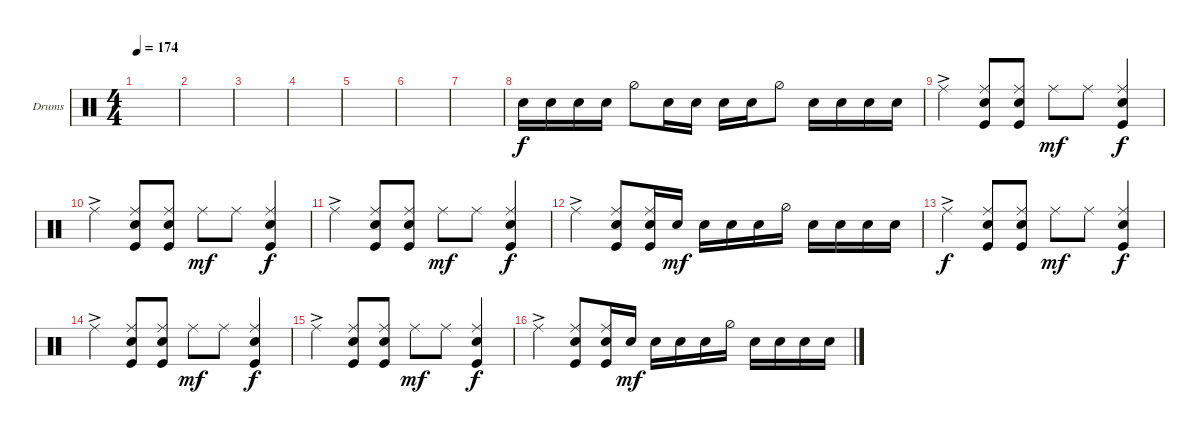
\defaultSystemsLayout 4
\bracketExtendMode groupsimilarinstruments
\firstSystemTrackNameOrientation horizontal
\otherSystemsTrackNameOrientation horizontal
\track ("Drumkit (Liam Finn)" "Drums") {instrument percussion}
\staff {score}
\articulation defaults
\ts (4 4)
\tempo 174
\clef neutral
\scale
0.333333
\ks c
|
\scale
0.333333 |
\scale
0.333333 |
\scale
0.333333 |
\scale
0.333333 |
\scale
0.333333 |
\scale
0.333333 |
\scale
0.333333 "Snare (hit) 2".16 "Snare (hit) 2".16 "Snare (hit) 2".16 "Snare (hit) 2".16 "Hi-Hat (half)".8 "Snare (hit) 2".16 "Snare (hit) 2".16 "Snare (hit) 2".16 "Snare (hit) 2".16 "Hi-Hat (half)".8 "Snare (hit) 2".16 "Snare (hit) 2".16 "Snare (hit) 2".16 "Snare (hit) 2".16 |
\scale
0.333333 "Ride (middle)"{ac}.4{dy f} ("Snare (hit) 2" "Kick (hit)" "Ride (middle)").8 ("Snare (hit) 2" "Kick (hit)" "Ride (middle)").8 "Ride (middle)".8{dy mf} "Ride (middle)".8 ("Snare (hit) 2" "Kick (hit)" "Ride (middle)").4{dy f} |
\scale
0.333333 "Ride (middle)"{ac}.4 ("Snare (hit) 2" "Kick (hit)" "Ride (middle)").8 ("Snare (hit) 2" "Kick (hit)" "Ride (middle)").8 "Ride (middle)".8{dy mf} "Ride (middle)".8 ("Snare (hit) 2" "Kick (hit)" "Ride (middle)").4{dy f} |
\scale
0.333333 "Ride (middle)"{ac}.4 ("Snare (hit) 2" "Kick (hit)" "Ride (middle)").8 ("Snare (hit) 2" "Kick (hit)" "Ride (middle)").8 "Ride (middle)".8{dy mf} "Ride (middle)".8 ("Snare (hit) 2" "Kick (hit)" "Ride (middle)").4{dy f} |
\scale
0.333333 "Ride (middle)"{ac}.4 ("Snare (hit) 2" "Kick (hit)" "Ride (middle)").8 ("Snare (hit) 2" "Kick (hit)" "Ride (middle)").16 "Snare (hit) 2".16{dy mf} "Snare (hit) 2".16 "Snare (hit) 2".16 "Snare (hit) 2".16 "Hi-Hat (half)".16 "Snare (hit) 2".16 "Snare (hit) 2".16 "Snare (hit) 2".16 "Snare (hit) 2".16 |
\scale
0.333333 "Ride (middle)"{ac}.4{dy f} ("Snare (hit) 2" "Kick (hit)" "Ride (middle)").8 ("Snare (hit) 2" "Kick (hit)" "Ride (middle)").8 "Ride (middle)".8{dy mf} "Ride (middle)".8 ("Snare (hit) 2" "Kick (hit)" "Ride (middle)").4{dy f} |
\scale
0.333333 "Ride (middle)"{ac}.4 ("Snare (hit) 2" "Kick (hit)" "Ride (middle)").8 ("Snare (hit) 2" "Kick (hit)" "Ride (middle)").8 "Ride (middle)".8{dy mf} "Ride (middle)".8 ("Snare (hit) 2" "Kick (hit)" "Ride (middle)").4{dy f} |
\scale
0.333333 "Ride (middle)"{ac}.4 ("Snare (hit) 2" "Kick (hit)" "Ride (middle)").8 ("Snare (hit) 2" "Kick (hit)" "Ride (middle)").8 "Ride (middle)".8{dy mf} "Ride (middle)".8 ("Snare (hit) 2" "Kick (hit)" "Ride (middle)").4{dy f} |
\scale
0.333333 "Ride (middle)"{ac}.4 ("Snare (hit) 2" "Kick (hit)" "Ride (middle)").8 ("Snare (hit) 2" "Kick (hit)" "Ride (middle)").16 "Snare (hit) 2".16{dy mf} "Snare (hit) 2".16 "Snare (hit) 2".16 "Snare (hit) 2".16 "Hi-Hat (half)".16 "Snare (hit) 2".16 "Snare (hit) 2".16 "Snare (hit) 2".16 "Snare (hit) 2".16
